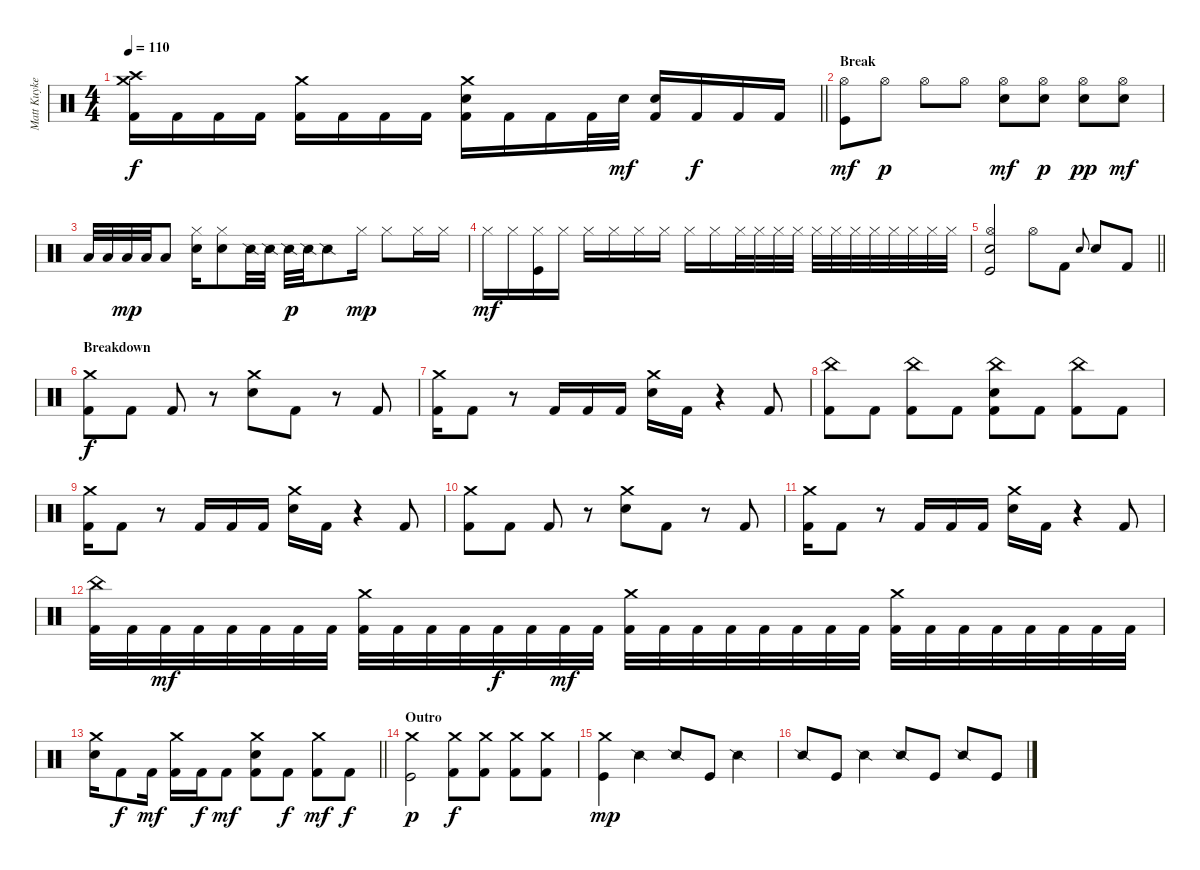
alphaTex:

\track ("Matt Kuykendall" "Matt Kuyke") {instrument percussion}
\staff {score}
\articulation defaults
\ts (4 4)
\tempo 110
\clef neutral
\barLineRight lightlight
\ks c
("Crash medium (hit)" "Crash high (hit)" "Kick (hit) 2").16{dy f} "Kick (hit) 2".16 "Kick (hit) 2".16 "Kick (hit) 2".16 ("Crash medium (hit)" "Kick (hit) 2").16 "Kick (hit) 2".16 "Kick (hit) 2".16 "Kick (hit) 2".16 ("Crash medium (hit)" "Electric Snare (hit)" "Kick (hit) 2").16 "Kick (hit) 2".16 "Kick (hit) 2".16 "Kick (hit) 2".32 "Electric Snare (hit)".32{dy mf} ("Electric Snare (hit)" "Kick (hit) 2").16 "Kick (hit) 2".16{dy f} "Kick (hit) 2".16 "Kick (hit) 2".16 |
\section ("" "Break")
("Hi-Hat (open)" "Kick (hit)").8{dy mf} "Hi-Hat (open)".8{dy p} "Hi-Hat (open)".8 "Hi-Hat (open)".8 ("Hi-Hat (open)" "Electric Snare (hit)").8{dy mf} ("Hi-Hat (open)" "Electric Snare (hit)").8{dy p} ("Hi-Hat (open)" "Electric Snare (hit)").8{dy pp} ("Hi-Hat (open)" "Electric Snare (hit)").8{dy mf} |
"Low Tom (hit)".32 "Low Tom (hit)".32 "Low Tom (hit)".32{dy mp} "Low Tom (hit)".32 "Low Tom (hit)".8 ("Hi-Hat (closed)" "Electric Snare (hit)").16 ("Hi-Hat (closed)" "Electric Snare (hit)").8 "Snare (side stick) 2".32 "Snare (side stick) 2".32 "Snare (side stick) 2".32{dy p} "Snare (side stick) 2".32 "Snare (side stick) 2".8 "Hi-Hat (closed)".16{dy mp} "Hi-Hat (closed)".8 "Hi-Hat (closed)".16 "Hi-Hat (closed)".16 |
"Hi-Hat (closed)".16{dy mf} "Hi-Hat (closed)".16 ("Hi-Hat (closed)" "Kick (hit)").16 "Hi-Hat (closed)".16 "Hi-Hat (closed)".16 "Hi-Hat (closed)".16 "Hi-Hat (closed)".16 "Hi-Hat (closed)".16 "Hi-Hat (closed)".16 "Hi-Hat (closed)".16 "Hi-Hat (closed)".32 "Hi-Hat (closed)".32 "Hi-Hat (closed)".32 "Hi-Hat (closed)".32 "Hi-Hat (closed)".32 "Hi-Hat (closed)".32 "Hi-Hat (closed)".32 "Hi-Hat (closed)".32 "Hi-Hat (closed)".32 "Hi-Hat (closed)".32 "Hi-Hat (closed)".32 "Hi-Hat (closed)".32 |
\barLineRight lightlight
("Hi-Hat (open)" "Electric Snare (hit)" "Kick (hit)").2 "Hi-Hat (open)".8 "Kick (hit) 2".8 "Electric Snare (hit)".8{gr onbeat} "Electric Snare (hit)".8 "Kick (hit) 2".8 |
\section ("" "Breakdown")
("Crash medium (hit)" "Kick (hit) 2").8{dy f} "Kick (hit) 2".8 "Kick (hit) 2".8 r.8 ("Crash medium (hit)" "Electric Snare (hit)").8 "Kick (hit) 2".8 r.8 "Kick (hit) 2".8 |
("Crash medium (hit)" "Kick (hit) 2").16 "Kick (hit) 2".8 r.8 "Kick (hit) 2".16 "Kick (hit) 2".16 "Kick (hit) 2".16 ("Crash medium (hit)" "Electric Snare (hit)").16 "Kick (hit) 2".16 r.4 "Kick (hit) 2".8 |
("China (hit)" "Kick (hit) 2").8 "Kick (hit) 2".8 ("China (hit)" "Kick (hit) 2").8 "Kick (hit) 2".8 ("China (hit)" "Electric Snare (hit)" "Kick (hit) 2").8 "Kick (hit) 2".8 ("China (hit)" "Kick (hit) 2").8 "Kick (hit) 2".8 |
("Crash medium (hit)" "Kick (hit) 2").16 "Kick (hit) 2".8 r.8 "Kick (hit) 2".16 "Kick (hit) 2".16 "Kick (hit) 2".16 ("Crash medium (hit)" "Electric Snare (hit)").16 "Kick (hit) 2".16 r.4 "Kick (hit) 2".8 |
("Crash medium (hit)" "Kick (hit) 2").8 "Kick (hit) 2".8 "Kick (hit) 2".8 r.8 ("Crash medium (hit)" "Electric Snare (hit)").8 "Kick (hit) 2".8 r.8 "Kick (hit) 2".8 |
("Crash medium (hit)" "Kick (hit) 2").16 "Kick (hit) 2".8 r.8 "Kick (hit) 2".16 "Kick (hit) 2".16 "Kick (hit) 2".16 ("Crash medium (hit)" "Electric Snare (hit)").16 "Kick (hit) 2".16 r.4 "Kick (hit) 2".8 |
("China (hit)" "Kick (hit) 2").32 "Kick (hit) 2".32 "Kick (hit) 2".32{dy mf} "Kick (hit) 2".32 "Kick (hit) 2".32 "Kick (hit) 2".32 "Kick (hit) 2".32 "Kick (hit) 2".32 ("Crash medium (hit)" "Kick (hit) 2").32 "Kick (hit) 2".32 "Kick (hit) 2".32 "Kick (hit) 2".32 "Kick (hit) 2".32{dy f} "Kick (hit) 2".32 "Kick (hit) 2".32{dy mf} "Kick (hit) 2".32 ("Crash medium (hit)" "Kick (hit) 2").32 "Kick (hit) 2".32 "Kick (hit) 2".32 "Kick (hit) 2".32 "Kick (hit) 2".32 "Kick (hit) 2".32 "Kick (hit) 2".32 "Kick (hit) 2".32 ("Crash medium (hit)" "Kick (hit) 2").32 "Kick (hit) 2".32 "Kick (hit) 2".32 "Kick (hit) 2".32 "Kick (hit) 2".32 "Kick (hit) 2".32 "Kick (hit) 2".32 "Kick (hit) 2".32 |
\barLineRight lightlight
("Crash medium (hit)" "Electric Snare (hit)").16 "Kick (hit) 2".8{dy f} "Kick (hit) 2".16{dy mf} ("Crash medium (hit)" "Kick (hit) 2").16 "Kick (hit) 2".16{dy f} "Kick (hit) 2".8{dy mf} ("Crash medium (hit)" "Electric Snare (hit)" "Kick (hit) 2").8 "Kick (hit) 2".8{dy f} ("Crash medium (hit)" "Kick (hit) 2").8{dy mf} "Kick (hit) 2".8{dy f} |
\section ("" "Outro")
("Crash medium (hit)" "Kick (hit)").2{dy p} ("Crash medium (hit)" "Kick (hit) 2").8{dy f} ("Crash medium (hit)" "Kick (hit) 2").8 ("Crash medium (hit)" "Kick (hit) 2").8 ("Crash medium (hit)" "Kick (hit) 2").8 |
("Crash medium (hit)" "Kick (hit)").4{dy mp} "Snare (side stick) 2".4 "Snare (side stick) 2".8 "Kick (hit)".8 "Snare (side stick) 2".4 |
"Snare (side stick) 2".8 "Kick (hit)".8 "Snare (side stick) 2".4 "Snare (side stick) 2".8 "Kick (hit)".8 "Snare (side stick) 2".8 "Kick (hit)".8
